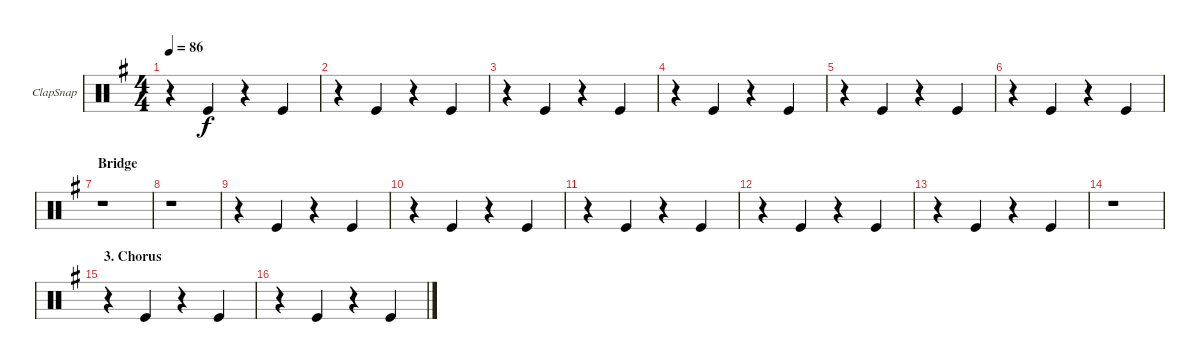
\defaultSystemsLayout 4
\bracketExtendMode groupsimilarinstruments
\firstSystemTrackNameOrientation horizontal
\otherSystemsTrackNameOrientation horizontal
\track ("hand clap / snap" "ClapSnap") {instrument percussion}
\staff {score}
\articulation defaults
\ts (4 4)
\tempo 86
\clef neutral
\ks g
r.4{dy f} "Kick (hit)".4 r.4 "Kick (hit)".4 |
r.4 "Kick (hit)".4 r.4 "Kick (hit)".4 |
r.4 "Kick (hit)".4 r.4 "Kick (hit)".4 |
r.4 "Kick (hit)".4 r.4 "Kick (hit)".4 |
r.4 "Kick (hit)".4 r.4 "Kick (hit)".4 |
r.4 "Kick (hit)".4 r.4 "Kick (hit)".4 |
\section ("" "Bridge")
r.1 |
r.1 |
r.4 "Kick (hit)".4 r.4 "Kick (hit)".4 |
r.4 "Kick (hit)".4 r.4 "Kick (hit)".4 |
r.4 "Kick (hit)".4 r.4 "Kick (hit)".4 |
r.4 "Kick (hit)".4 r.4 "Kick (hit)".4 |
r.4 "Kick (hit)".4 r.4 "Kick (hit)".4 |
r.1 |
\section ("" "3. Chorus")
r.4 "Kick (hit)".4 r.4 "Kick (hit)".4 |
r.4 "Kick (hit)".4 r.4 "Kick (hit)".4
